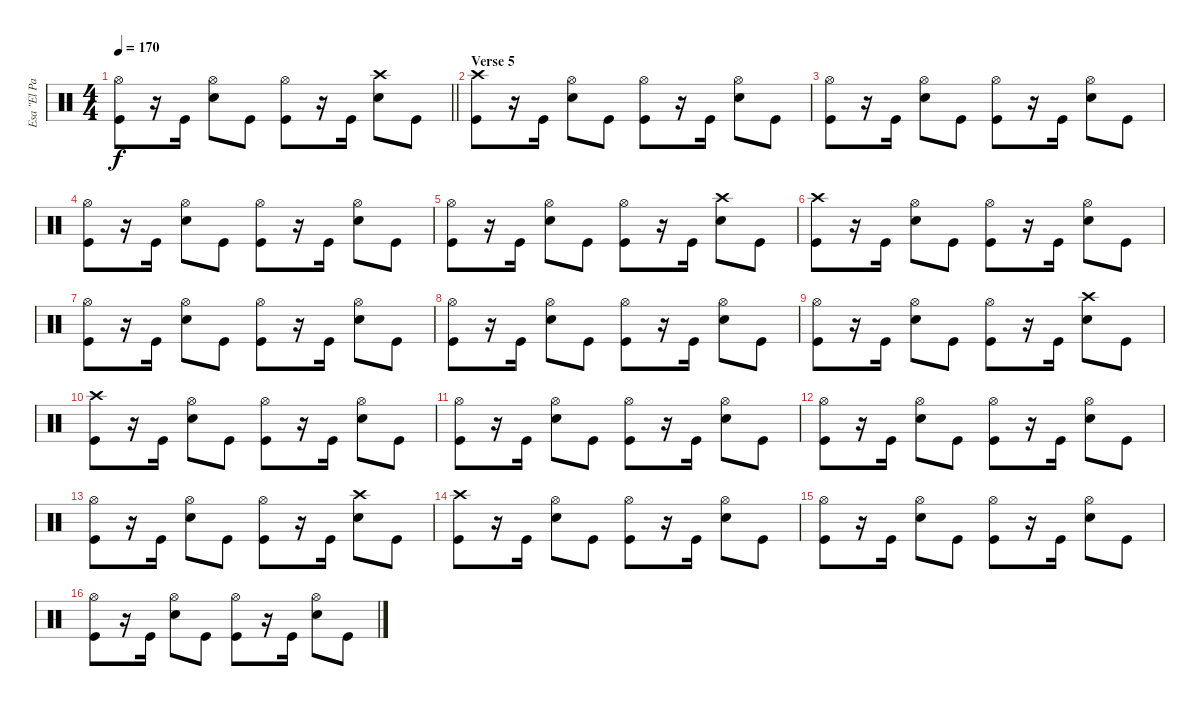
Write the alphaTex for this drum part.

\track ("Esa \"El Pasaderia\" Palosaari" "Esa \"El Pa") {instrument percussion}
\staff {score}
\articulation defaults
\ts (4 4)
\tempo 170
\clef neutral
\barLineRight lightlight
\ks c
("Hi-Hat (open)" "Kick (hit)").8{dy f} r.16 "Kick (hit)".16 ("Hi-Hat (open)" "Snare (hit) 2").8 "Kick (hit)".8 ("Hi-Hat (open)" "Kick (hit)").8 r.16 "Kick (hit)".16 ("Crash high (hit)" "Snare (hit) 2").8 "Kick (hit)".8 |
\section ("" "Verse 5")
("Crash high (hit)" "Kick (hit)").8 r.16 "Kick (hit)".16 ("Hi-Hat (open)" "Snare (hit) 2").8 "Kick (hit)".8 ("Hi-Hat (open)" "Kick (hit)").8 r.16 "Kick (hit)".16 ("Hi-Hat (open)" "Snare (hit) 2").8 "Kick (hit)".8 |
("Hi-Hat (open)" "Kick (hit)").8 r.16 "Kick (hit)".16 ("Hi-Hat (open)" "Snare (hit) 2").8 "Kick (hit)".8 ("Hi-Hat (open)" "Kick (hit)").8 r.16 "Kick (hit)".16 ("Hi-Hat (open)" "Snare (hit) 2").8 "Kick (hit)".8 |
("Hi-Hat (open)" "Kick (hit)").8 r.16 "Kick (hit)".16 ("Hi-Hat (open)" "Snare (hit) 2").8 "Kick (hit)".8 ("Hi-Hat (open)" "Kick (hit)").8 r.16 "Kick (hit)".16 ("Hi-Hat (open)" "Snare (hit) 2").8 "Kick (hit)".8 |
("Hi-Hat (open)" "Kick (hit)").8 r.16 "Kick (hit)".16 ("Hi-Hat (open)" "Snare (hit) 2").8 "Kick (hit)".8 ("Hi-Hat (open)" "Kick (hit)").8 r.16 "Kick (hit)".16 ("Crash high (hit)" "Snare (hit) 2").8 "Kick (hit)".8 |
("Crash high (hit)" "Kick (hit)").8 r.16 "Kick (hit)".16 ("Hi-Hat (open)" "Snare (hit) 2").8 "Kick (hit)".8 ("Hi-Hat (open)" "Kick (hit)").8 r.16 "Kick (hit)".16 ("Hi-Hat (open)" "Snare (hit) 2").8 "Kick (hit)".8 |
("Hi-Hat (open)" "Kick (hit)").8 r.16 "Kick (hit)".16 ("Hi-Hat (open)" "Snare (hit) 2").8 "Kick (hit)".8 ("Hi-Hat (open)" "Kick (hit)").8 r.16 "Kick (hit)".16 ("Hi-Hat (open)" "Snare (hit) 2").8 "Kick (hit)".8 |
("Hi-Hat (open)" "Kick (hit)").8 r.16 "Kick (hit)".16 ("Hi-Hat (open)" "Snare (hit) 2").8 "Kick (hit)".8 ("Hi-Hat (open)" "Kick (hit)").8 r.16 "Kick (hit)".16 ("Hi-Hat (open)" "Snare (hit) 2").8 "Kick (hit)".8 |
("Hi-Hat (open)" "Kick (hit)").8 r.16 "Kick (hit)".16 ("Hi-Hat (open)" "Snare (hit) 2").8 "Kick (hit)".8 ("Hi-Hat (open)" "Kick (hit)").8 r.16 "Kick (hit)".16 ("Crash high (hit)" "Snare (hit) 2").8 "Kick (hit)".8 |
("Crash high (hit)" "Kick (hit)").8 r.16 "Kick (hit)".16 ("Hi-Hat (open)" "Snare (hit) 2").8 "Kick (hit)".8 ("Hi-Hat (open)" "Kick (hit)").8 r.16 "Kick (hit)".16 ("Hi-Hat (open)" "Snare (hit) 2").8 "Kick (hit)".8 |
("Hi-Hat (open)" "Kick (hit)").8 r.16 "Kick (hit)".16 ("Hi-Hat (open)" "Snare (hit) 2").8 "Kick (hit)".8 ("Hi-Hat (open)" "Kick (hit)").8 r.16 "Kick (hit)".16 ("Hi-Hat (open)" "Snare (hit) 2").8 "Kick (hit)".8 |
("Hi-Hat (open)" "Kick (hit)").8 r.16 "Kick (hit)".16 ("Hi-Hat (open)" "Snare (hit) 2").8 "Kick (hit)".8 ("Hi-Hat (open)" "Kick (hit)").8 r.16 "Kick (hit)".16 ("Hi-Hat (open)" "Snare (hit) 2").8 "Kick (hit)".8 |
("Hi-Hat (open)" "Kick (hit)").8 r.16 "Kick (hit)".16 ("Hi-Hat (open)" "Snare (hit) 2").8 "Kick (hit)".8 ("Hi-Hat (open)" "Kick (hit)").8 r.16 "Kick (hit)".16 ("Crash high (hit)" "Snare (hit) 2").8 "Kick (hit)".8 |
("Crash high (hit)" "Kick (hit)").8 r.16 "Kick (hit)".16 ("Hi-Hat (open)" "Snare (hit) 2").8 "Kick (hit)".8 ("Hi-Hat (open)" "Kick (hit)").8 r.16 "Kick (hit)".16 ("Hi-Hat (open)" "Snare (hit) 2").8 "Kick (hit)".8 |
("Hi-Hat (open)" "Kick (hit)").8 r.16 "Kick (hit)".16 ("Hi-Hat (open)" "Snare (hit) 2").8 "Kick (hit)".8 ("Hi-Hat (open)" "Kick (hit)").8 r.16 "Kick (hit)".16 ("Hi-Hat (open)" "Snare (hit) 2").8 "Kick (hit)".8 |
("Hi-Hat (open)" "Kick (hit)").8 r.16 "Kick (hit)".16 ("Hi-Hat (open)" "Snare (hit) 2").8 "Kick (hit)".8 ("Hi-Hat (open)" "Kick (hit)").8 r.16 "Kick (hit)".16 ("Hi-Hat (open)" "Snare (hit) 2").8 "Kick (hit)".8
